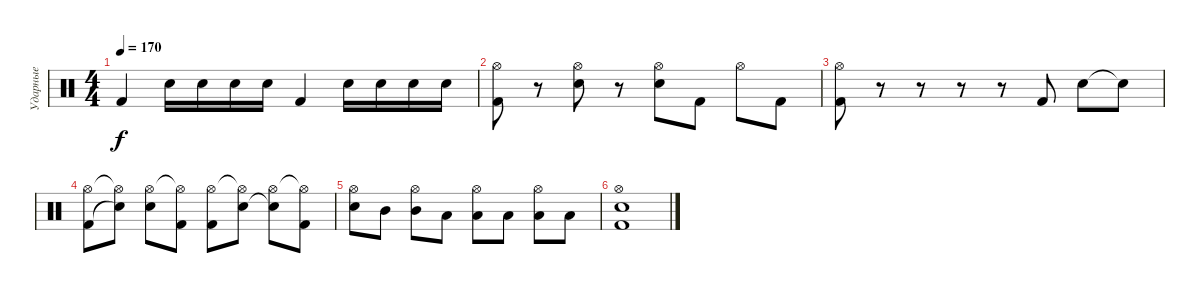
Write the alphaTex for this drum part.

\track ("Ударные" "Ударные") {instrument percussion}
\staff {score}
\articulation defaults
\ts (4 4)
\tempo 170
\clef neutral
\ks c "Kick (hit) 2".4{dy f} "Electric Snare (hit)".16 "Electric Snare (hit)".16 "Electric Snare (hit)".16 "Electric Snare (hit)".16 "Kick (hit) 2".4 "Electric Snare (hit)".16 "Electric Snare (hit)".16 "Electric Snare (hit)".16 "Electric Snare (hit)".16
|
("Hi-Hat (open)" "Kick (hit) 2").8 r.8 ("Hi-Hat (open)" "Electric Snare (hit)").8 r.8 ("Hi-Hat (open)" "Electric Snare (hit)").8 "Kick (hit) 2".8 "Hi-Hat (open)".8 "Kick (hit) 2".8 |
("Hi-Hat (open)" "Kick (hit) 2").8 r.8 r.8 r.8 r.8 "Kick (hit) 2".8 "Electric Snare (hit)".8 "Snare (hit)"{t}.8 |
("Hi-Hat (open)" "Kick (hit) 2").8 ("Hi-Hat (open)"{t} "Snare (hit)"{t}).8 ("Hi-Hat (open)" "Electric Snare (hit)").8 ("Hi-Hat (open)"{t} "Kick (hit) 2").8 ("Hi-Hat (open)" "Kick (hit) 2").8 ("Hi-Hat (open)"{t} "Electric Snare (hit)").8 ("Hi-Hat (open)" "Snare (hit)"{t}).8 ("Hi-Hat (open)"{t} "Kick (hit) 2").8 |
("Hi-Hat (open)" "Electric Snare (hit)").8 "Mid Tom (hit)".8 ("Hi-Hat (open)" "Mid Tom (hit)").8 "Low Tom (hit)".8 ("Hi-Hat (open)" "Low Tom (hit)").8 "Low Tom (hit)".8 ("Hi-Hat (open)" "Low Floor Tom (hit)").8 "Low Floor Tom (hit)".8 |
("Hi-Hat (open)" "Electric Snare (hit)" "Kick (hit) 2").1
